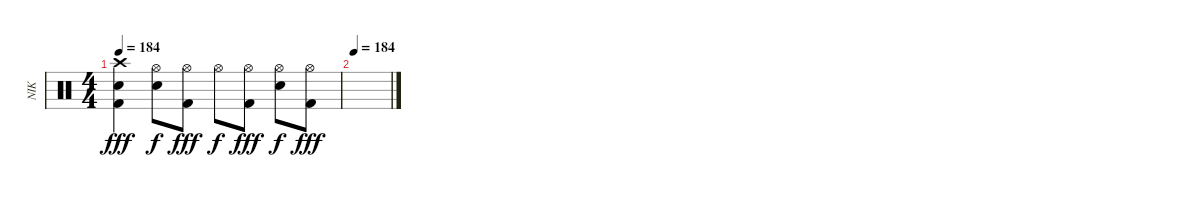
\track ("NIK" "NIK") {instrument percussion}
\staff {score}
\articulation defaults
\ts (4 4)
\tempo 184
\clef neutral
\ks c
("Crash high (hit)" "Snare (hit) 2" "Kick (hit) 2").4{dy fff} ("Hi-Hat (open)" "Snare (hit) 2").8{dy f} ("Hi-Hat (open)" "Kick (hit) 2").8{dy fff} "Hi-Hat (open)".8{dy f} ("Hi-Hat (open)" "Kick (hit) 2").8{dy fff} ("Hi-Hat (open)" "Snare (hit) 2").8{dy f} ("Hi-Hat (open)" "Kick (hit) 2").8{dy fff} |
\tempo 184
